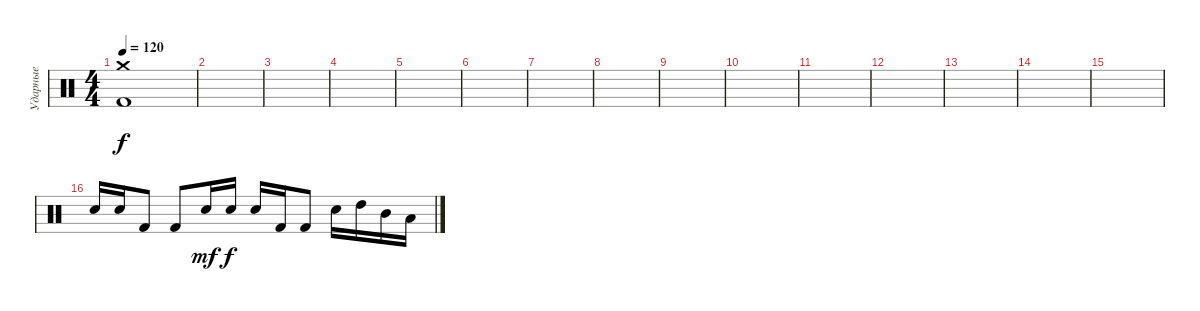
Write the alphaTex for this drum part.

\track ("Ударные" "Ударные") {instrument percussion}
\staff {score}
\articulation defaults
\ts (4 4)
\tempo 120
\clef neutral
\ks c
("Crash medium (hit)" "Kick (hit) 2").1{dy f} |
|
|
|
|
|
|
|
|
|
|
|
|
|
|
"Snare (hit) 2".16 "Snare (hit) 2".16 "Kick (hit) 2".8 "Kick (hit) 2".8 "Snare (hit) 2".16{dy mf} "Snare (hit) 2".16{dy f} "Snare (hit) 2".16 "Kick (hit) 2".16 "Kick (hit) 2".8 "Snare (hit) 2".16 "High Tom (hit)".16 "Mid Tom (hit)".16 "Low Tom (hit)".16
